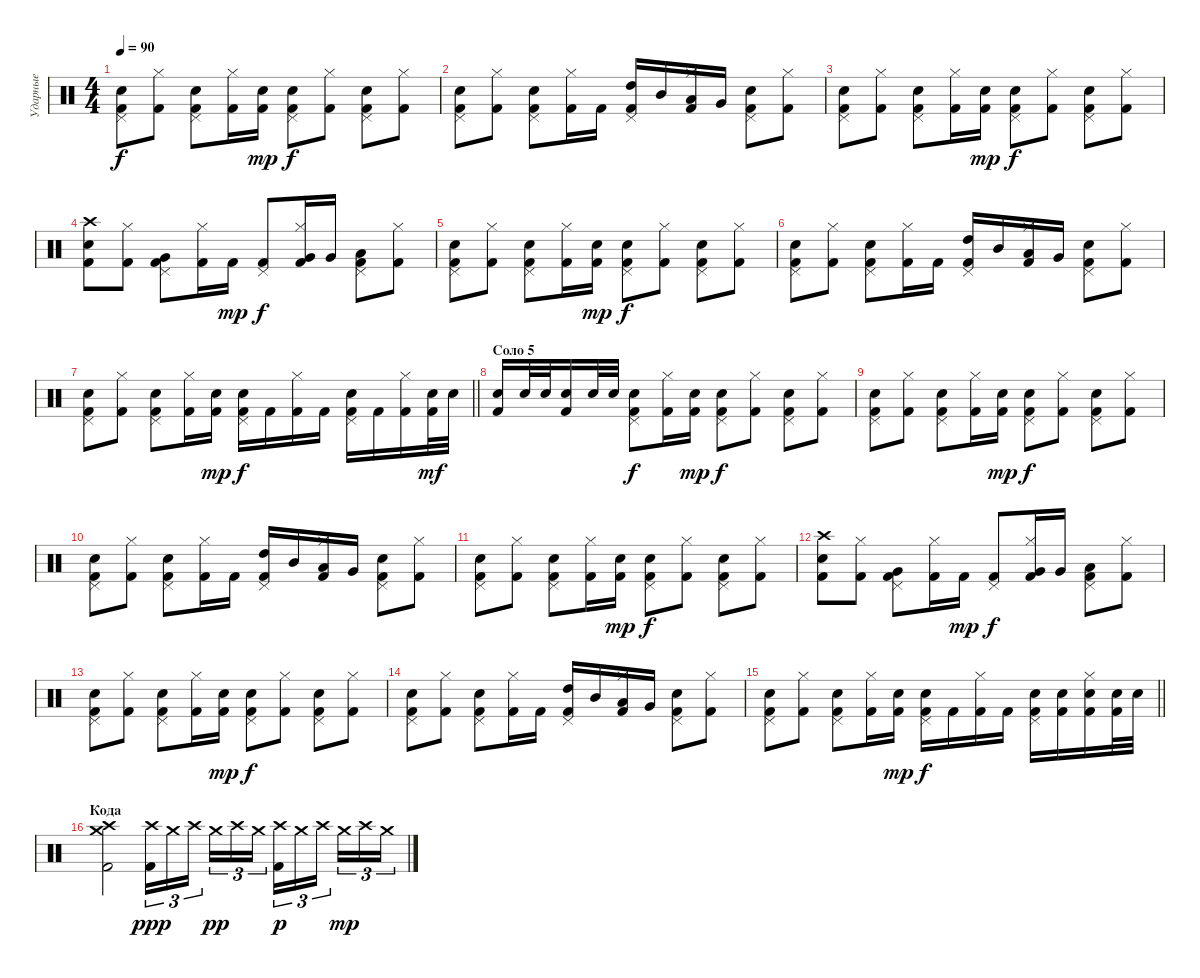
\track ("Ударные" "Ударные") {instrument percussion}
\staff {score}
\articulation defaults
\ts (4 4)
\tempo 90
\clef neutral
\ks c
("Pedal Hi-Hat (hit)" "Snare (hit) 2" "Kick (hit) 2").8{dy f} ("Hi-Hat (closed)" "Kick (hit) 2").8 ("Pedal Hi-Hat (hit)" "Snare (hit) 2" "Kick (hit) 2").8 ("Hi-Hat (closed)" "Kick (hit) 2").16 ("Snare (hit) 2" "Kick (hit) 2").16{dy mp} ("Pedal Hi-Hat (hit)" "Snare (hit) 2" "Kick (hit) 2").8{dy f} ("Hi-Hat (closed)" "Kick (hit) 2").8 ("Pedal Hi-Hat (hit)" "Snare (hit) 2" "Kick (hit) 2").8 ("Hi-Hat (closed)" "Kick (hit) 2").8 |
("Pedal Hi-Hat (hit)" "Snare (hit) 2" "Kick (hit) 2").8 ("Hi-Hat (closed)" "Kick (hit) 2").8 ("Pedal Hi-Hat (hit)" "Snare (hit) 2" "Kick (hit) 2").8 ("Hi-Hat (closed)" "Kick (hit) 2").16 "Kick (hit) 2".16 ("Pedal Hi-Hat (hit)" "High Tom (hit)" "Kick (hit) 2").16 "Mid Tom (hit)".16 ("Hi-Hat (closed)" "Low Tom (hit)" "Kick (hit) 2").16 "Very Low Tom (hit)".16 ("Pedal Hi-Hat (hit)" "Snare (hit) 2" "Kick (hit) 2").8 ("Hi-Hat (closed)" "Kick (hit) 2").8 |
("Pedal Hi-Hat (hit)" "Snare (hit) 2" "Kick (hit) 2").8 ("Hi-Hat (closed)" "Kick (hit) 2").8 ("Pedal Hi-Hat (hit)" "Snare (hit) 2" "Kick (hit) 2").8 ("Hi-Hat (closed)" "Kick (hit) 2").16 ("Snare (hit) 2" "Kick (hit) 2").16{dy mp} ("Pedal Hi-Hat (hit)" "Snare (hit) 2" "Kick (hit) 2").8{dy f} ("Hi-Hat (closed)" "Kick (hit) 2").8 ("Pedal Hi-Hat (hit)" "Snare (hit) 2" "Kick (hit) 2").8 ("Hi-Hat (closed)" "Kick (hit) 2").8 |
("Crash high (hit)" "Snare (hit) 2" "Kick (hit) 2").8 ("Hi-Hat (closed)" "Kick (hit) 2").8 ("Pedal Hi-Hat (hit)" "Very Low Tom (hit)" "Kick (hit) 2").8 ("Hi-Hat (closed)" "Kick (hit) 2").16 "Kick (hit) 2".16{dy mp} ("Pedal Hi-Hat (hit)" "Kick (hit) 2").8{dy f} ("Hi-Hat (closed)" "Very Low Tom (hit)" "Kick (hit) 2").16 "Very Low Tom (hit)".16 ("Pedal Hi-Hat (hit)" "Low Floor Tom (hit)" "Kick (hit) 2").8 ("Hi-Hat (closed)" "Kick (hit) 2").8 |
("Pedal Hi-Hat (hit)" "Snare (hit) 2" "Kick (hit) 2").8 ("Hi-Hat (closed)" "Kick (hit) 2").8 ("Pedal Hi-Hat (hit)" "Snare (hit) 2" "Kick (hit) 2").8 ("Hi-Hat (closed)" "Kick (hit) 2").16 ("Snare (hit) 2" "Kick (hit) 2").16{dy mp} ("Pedal Hi-Hat (hit)" "Snare (hit) 2" "Kick (hit) 2").8{dy f} ("Hi-Hat (closed)" "Kick (hit) 2").8 ("Pedal Hi-Hat (hit)" "Snare (hit) 2" "Kick (hit) 2").8 ("Hi-Hat (closed)" "Kick (hit) 2").8 |
("Pedal Hi-Hat (hit)" "Snare (hit) 2" "Kick (hit) 2").8 ("Hi-Hat (closed)" "Kick (hit) 2").8 ("Pedal Hi-Hat (hit)" "Snare (hit) 2" "Kick (hit) 2").8 ("Hi-Hat (closed)" "Kick (hit) 2").16 "Kick (hit) 2".16 ("Pedal Hi-Hat (hit)" "High Tom (hit)" "Kick (hit) 2").16 "Mid Tom (hit)".16 ("Hi-Hat (closed)" "Low Tom (hit)" "Kick (hit) 2").16 "Very Low Tom (hit)".16 ("Pedal Hi-Hat (hit)" "Snare (hit) 2" "Kick (hit) 2").8 ("Hi-Hat (closed)" "Kick (hit) 2").8 |
\barLineRight lightlight
("Pedal Hi-Hat (hit)" "Snare (hit) 2" "Kick (hit) 2").8 ("Hi-Hat (closed)" "Kick (hit) 2").8 ("Pedal Hi-Hat (hit)" "Snare (hit) 2" "Kick (hit) 2").8 ("Hi-Hat (closed)" "Kick (hit) 2").16 ("Snare (hit) 2" "Kick (hit) 2").16{dy mp} ("Pedal Hi-Hat (hit)" "Snare (hit) 2" "Kick (hit) 2").16{dy f} "Kick (hit) 2".16 ("Hi-Hat (closed)" "Kick (hit) 2").16 "Kick (hit) 2".16 ("Pedal Hi-Hat (hit)" "Snare (hit) 2" "Kick (hit) 2").16 "Kick (hit) 2".16 ("Hi-Hat (closed)" "Kick (hit) 2").16 ("Snare (hit) 2" "Kick (hit) 2").32{dy mf} "Snare (hit) 2".32 |
\section ("" "Соло 5")
("Snare (hit) 2" "Kick (hit) 2").16 "Snare (hit) 2".32 "Snare (hit) 2".32 ("Snare (hit) 2" "Kick (hit) 2").16 "Snare (hit) 2".32 "Snare (hit) 2".32 ("Pedal Hi-Hat (hit)" "Snare (hit) 2" "Kick (hit) 2").8{dy f} ("Hi-Hat (closed)" "Kick (hit) 2").16 ("Snare (hit) 2" "Kick (hit) 2").16{dy mp} ("Pedal Hi-Hat (hit)" "Snare (hit) 2" "Kick (hit) 2").8{dy f} ("Hi-Hat (closed)" "Kick (hit) 2").8 ("Pedal Hi-Hat (hit)" "Snare (hit) 2" "Kick (hit) 2").8 ("Hi-Hat (closed)" "Kick (hit) 2").8 |
("Pedal Hi-Hat (hit)" "Snare (hit) 2" "Kick (hit) 2").8 ("Hi-Hat (closed)" "Kick (hit) 2").8 ("Pedal Hi-Hat (hit)" "Snare (hit) 2" "Kick (hit) 2").8 ("Hi-Hat (closed)" "Kick (hit) 2").16 ("Snare (hit) 2" "Kick (hit) 2").16{dy mp} ("Pedal Hi-Hat (hit)" "Snare (hit) 2" "Kick (hit) 2").8{dy f} ("Hi-Hat (closed)" "Kick (hit) 2").8 ("Pedal Hi-Hat (hit)" "Snare (hit) 2" "Kick (hit) 2").8 ("Hi-Hat (closed)" "Kick (hit) 2").8 |
("Pedal Hi-Hat (hit)" "Snare (hit) 2" "Kick (hit) 2").8 ("Hi-Hat (closed)" "Kick (hit) 2").8 ("Pedal Hi-Hat (hit)" "Snare (hit) 2" "Kick (hit) 2").8 ("Hi-Hat (closed)" "Kick (hit) 2").16 "Kick (hit) 2".16 ("Pedal Hi-Hat (hit)" "High Tom (hit)" "Kick (hit) 2").16 "Mid Tom (hit)".16 ("Hi-Hat (closed)" "Low Tom (hit)" "Kick (hit) 2").16 "Very Low Tom (hit)".16 ("Pedal Hi-Hat (hit)" "Snare (hit) 2" "Kick (hit) 2").8 ("Hi-Hat (closed)" "Kick (hit) 2").8 |
("Pedal Hi-Hat (hit)" "Snare (hit) 2" "Kick (hit) 2").8 ("Hi-Hat (closed)" "Kick (hit) 2").8 ("Pedal Hi-Hat (hit)" "Snare (hit) 2" "Kick (hit) 2").8 ("Hi-Hat (closed)" "Kick (hit) 2").16 ("Snare (hit) 2" "Kick (hit) 2").16{dy mp} ("Pedal Hi-Hat (hit)" "Snare (hit) 2" "Kick (hit) 2").8{dy f} ("Hi-Hat (closed)" "Kick (hit) 2").8 ("Pedal Hi-Hat (hit)" "Snare (hit) 2" "Kick (hit) 2").8 ("Hi-Hat (closed)" "Kick (hit) 2").8 |
("Crash high (hit)" "Snare (hit) 2" "Kick (hit) 2").8 ("Hi-Hat (closed)" "Kick (hit) 2").8 ("Pedal Hi-Hat (hit)" "Very Low Tom (hit)" "Kick (hit) 2").8 ("Hi-Hat (closed)" "Kick (hit) 2").16 "Kick (hit) 2".16{dy mp} ("Pedal Hi-Hat (hit)" "Kick (hit) 2").8{dy f} ("Hi-Hat (closed)" "Very Low Tom (hit)" "Kick (hit) 2").16 "Very Low Tom (hit)".16 ("Pedal Hi-Hat (hit)" "Low Floor Tom (hit)" "Kick (hit) 2").8 ("Hi-Hat (closed)" "Kick (hit) 2").8 |
("Pedal Hi-Hat (hit)" "Snare (hit) 2" "Kick (hit) 2").8 ("Hi-Hat (closed)" "Kick (hit) 2").8 ("Pedal Hi-Hat (hit)" "Snare (hit) 2" "Kick (hit) 2").8 ("Hi-Hat (closed)" "Kick (hit) 2").16 ("Snare (hit) 2" "Kick (hit) 2").16{dy mp} ("Pedal Hi-Hat (hit)" "Snare (hit) 2" "Kick (hit) 2").8{dy f} ("Hi-Hat (closed)" "Kick (hit) 2").8 ("Pedal Hi-Hat (hit)" "Snare (hit) 2" "Kick (hit) 2").8 ("Hi-Hat (closed)" "Kick (hit) 2").8 |
("Pedal Hi-Hat (hit)" "Snare (hit) 2" "Kick (hit) 2").8 ("Hi-Hat (closed)" "Kick (hit) 2").8 ("Pedal Hi-Hat (hit)" "Snare (hit) 2" "Kick (hit) 2").8 ("Hi-Hat (closed)" "Kick (hit) 2").16 "Kick (hit) 2".16 ("Pedal Hi-Hat (hit)" "High Tom (hit)" "Kick (hit) 2").16 "Mid Tom (hit)".16 ("Hi-Hat (closed)" "Low Tom (hit)" "Kick (hit) 2").16 "Very Low Tom (hit)".16 ("Pedal Hi-Hat (hit)" "Snare (hit) 2" "Kick (hit) 2").8 ("Hi-Hat (closed)" "Kick (hit) 2").8 |
\barLineRight lightlight
("Pedal Hi-Hat (hit)" "Snare (hit) 2" "Kick (hit) 2").8 ("Hi-Hat (closed)" "Kick (hit) 2").8 ("Pedal Hi-Hat (hit)" "Snare (hit) 2" "Kick (hit) 2").8 ("Hi-Hat (closed)" "Kick (hit) 2").16 ("Snare (hit) 2" "Kick (hit) 2").16{dy mp} ("Pedal Hi-Hat (hit)" "Snare (hit) 2" "Kick (hit) 2").16{dy f} "Kick (hit) 2".16 ("Hi-Hat (closed)" "Kick (hit) 2").16 "Kick (hit) 2".16 ("Pedal Hi-Hat (hit)" "Snare (hit) 2" "Kick (hit) 2").16 ("Snare (hit) 2" "Kick (hit) 2").16 ("Hi-Hat (closed)" "Snare (hit) 2" "Kick (hit) 2").16 ("Snare (hit) 2" "Kick (hit) 2").32 "Snare (hit) 2".32 |
\section ("" "Кода")
("Crash medium (hit)" "Crash high (hit)" "Kick (hit) 2").2 ("Crash high (hit)" "Kick (hit) 2").16{tu (3 2) dy ppp} "Crash medium (hit)".16{tu (3 2)} "Crash high (hit)".16{tu (3 2) beam splitsecondary} "Crash medium (hit)".16{tu (3 2) dy pp} "Crash high (hit)".16{tu (3 2)} "Crash medium (hit)".16{tu (3 2)} ("Crash high (hit)" "Kick (hit) 2").16{tu (3 2) dy p} "Crash medium (hit)".16{tu (3 2)} "Crash high (hit)".16{tu (3 2) beam splitsecondary} "Crash medium (hit)".16{tu (3 2) dy mp} "Crash high (hit)".16{tu (3 2)} "Crash medium (hit)".16{tu (3 2)}
